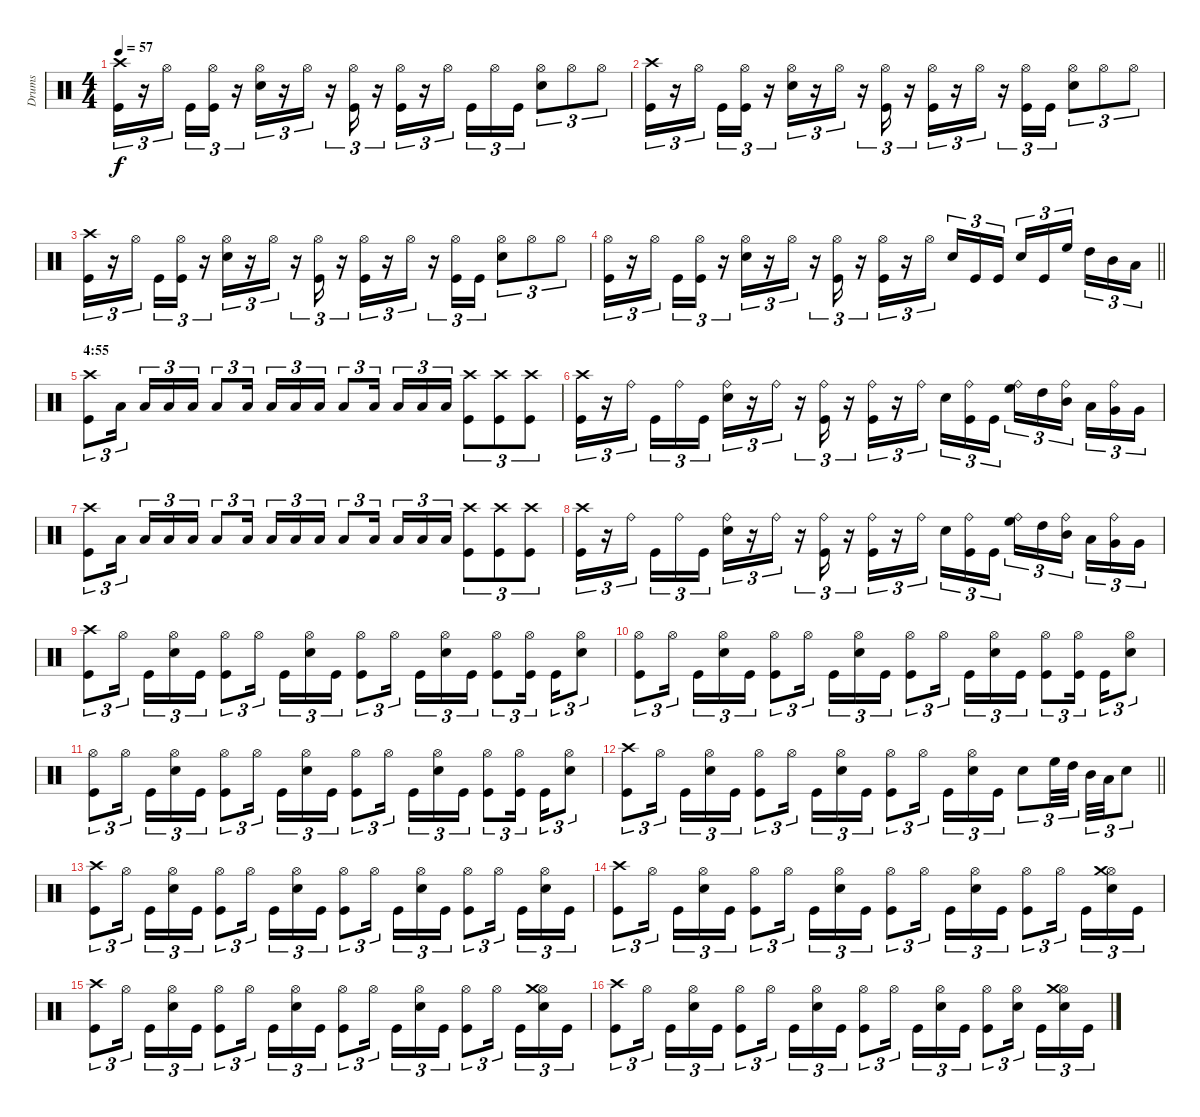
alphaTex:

\track ("Drums" "Drums") {instrument percussion}
\staff {score}
\articulation defaults
\ts (4 4)
\tempo 57
\clef neutral
\ks c
("Crash high (hit)" "Kick (hit)").16{tu (3 2) dy f} r.16{tu (3 2)} "Hi-Hat (open)".16{tu (3 2) beam splitsecondary} "Kick (hit)".16{tu (3 2)} ("Kick (hit)" "Hi-Hat (open)").16{tu (3 2)} r.16{tu (3 2)} ("Snare (hit) 2" "Hi-Hat (open)").16{tu (3 2)} r.16{tu (3 2)} "Hi-Hat (open)".16{tu (3 2)} r.16{tu (3 2)} ("Kick (hit)" "Hi-Hat (open)").16{tu (3 2)} r.16{tu (3 2)} ("Kick (hit)" "Hi-Hat (open)").16{tu (3 2)} r.16{tu (3 2)} "Hi-Hat (open)".16{tu (3 2) beam splitsecondary} "Kick (hit)".16{tu (3 2)} "Hi-Hat (open)".16{tu (3 2)} "Kick (hit)".16{tu (3 2)} ("Snare (hit) 2" "Hi-Hat (open)").8{tu (3 2)} "Hi-Hat (open)".8{tu (3 2)} "Hi-Hat (open)".8{tu (3 2)} |
("Crash high (hit)" "Kick (hit)").16{tu (3 2)} r.16{tu (3 2)} "Hi-Hat (open)".16{tu (3 2) beam splitsecondary} "Kick (hit)".16{tu (3 2)} ("Kick (hit)" "Hi-Hat (open)").16{tu (3 2)} r.16{tu (3 2)} ("Snare (hit) 2" "Hi-Hat (open)").16{tu (3 2)} r.16{tu (3 2)} "Hi-Hat (open)".16{tu (3 2)} r.16{tu (3 2)} ("Kick (hit)" "Hi-Hat (open)").16{tu (3 2)} r.16{tu (3 2)} ("Kick (hit)" "Hi-Hat (open)").16{tu (3 2)} r.16{tu (3 2)} "Hi-Hat (open)".16{tu (3 2)} r.16{tu (3 2)} ("Hi-Hat (open)" "Kick (hit)").16{tu (3 2)} "Kick (hit)".16{tu (3 2)} ("Snare (hit) 2" "Hi-Hat (open)").8{tu (3 2)} "Hi-Hat (open)".8{tu (3 2)} "Hi-Hat (open)".8{tu (3 2)} |
("Crash high (hit)" "Kick (hit)").16{tu (3 2)} r.16{tu (3 2)} "Hi-Hat (open)".16{tu (3 2) beam splitsecondary} "Kick (hit)".16{tu (3 2)} ("Kick (hit)" "Hi-Hat (open)").16{tu (3 2)} r.16{tu (3 2)} ("Snare (hit) 2" "Hi-Hat (open)").16{tu (3 2)} r.16{tu (3 2)} "Hi-Hat (open)".16{tu (3 2)} r.16{tu (3 2)} ("Kick (hit)" "Hi-Hat (open)").16{tu (3 2)} r.16{tu (3 2)} ("Kick (hit)" "Hi-Hat (open)").16{tu (3 2)} r.16{tu (3 2)} "Hi-Hat (open)".16{tu (3 2)} r.16{tu (3 2)} ("Hi-Hat (open)" "Kick (hit)").16{tu (3 2)} "Kick (hit)".16{tu (3 2)} ("Snare (hit) 2" "Hi-Hat (open)").8{tu (3 2)} "Hi-Hat (open)".8{tu (3 2)} "Hi-Hat (open)".8{tu (3 2)} |
\barLineRight lightlight
("Kick (hit)" "Hi-Hat (open)").16{tu (3 2)} r.16{tu (3 2)} "Hi-Hat (open)".16{tu (3 2) beam splitsecondary} "Kick (hit)".16{tu (3 2)} ("Kick (hit)" "Hi-Hat (open)").16{tu (3 2)} r.16{tu (3 2)} ("Snare (hit) 2" "Hi-Hat (open)").16{tu (3 2)} r.16{tu (3 2)} "Hi-Hat (open)".16{tu (3 2)} r.16{tu (3 2)} ("Kick (hit)" "Hi-Hat (open)").16{tu (3 2)} r.16{tu (3 2)} ("Kick (hit)" "Hi-Hat (open)").16{tu (3 2)} r.16{tu (3 2)} "Hi-Hat (open)".16{tu (3 2) beam splitsecondary} "Snare (hit) 2".16{tu (3 2)} "Kick (hit)".16{tu (3 2)} "Kick (hit)".16{tu (3 2)} "Snare (hit) 2".16{tu (3 2)} "Kick (hit)".16{tu (3 2)} "High Floor Tom (hit)".16{tu (3 2) beam splitsecondary} "High Tom (hit)".16{tu (3 2)} "Mid Tom (hit)".16{tu (3 2)} "Low Tom (hit)".16{tu (3 2)} |
\section ("" "4:55")
("Kick (hit)" "Crash high (hit)").8{tu (3 2)} "Low Tom (hit)".16{tu (3 2) beam splitsecondary} "Low Tom (hit)".16{tu (3 2)} "Low Tom (hit)".16{tu (3 2)} "Low Tom (hit)".16{tu (3 2)} "Low Tom (hit)".8{tu (3 2)} "Low Tom (hit)".16{tu (3 2) beam splitsecondary} "Low Tom (hit)".16{tu (3 2)} "Low Tom (hit)".16{tu (3 2)} "Low Tom (hit)".16{tu (3 2)} "Low Tom (hit)".8{tu (3 2)} "Low Tom (hit)".16{tu (3 2) beam splitsecondary} "Low Tom (hit)".16{tu (3 2)} "Low Tom (hit)".16{tu (3 2)} "Low Tom (hit)".16{tu (3 2)} ("Crash high (hit)" "Kick (hit)").8{tu (3 2)} ("Crash high (hit)" "Kick (hit)").8{tu (3 2)} ("Crash high (hit)" "Kick (hit)").8{tu (3 2)} |
("Kick (hit)" "Crash high (hit)").16{tu (3 2)} r.16{tu (3 2)} "Ride (bell)".16{tu (3 2) beam splitsecondary} "Kick (hit)".16{tu (3 2)} "Ride (bell)".16{tu (3 2)} "Kick (hit)".16{tu (3 2)} ("Ride (bell)" "Snare (hit) 2").16{tu (3 2)} r.16{tu (3 2)} "Ride (bell)".16{tu (3 2)} r.16{tu (3 2)} ("Ride (bell)" "Kick (hit)").16{tu (3 2)} r.16{tu (3 2)} ("Ride (bell)" "Kick (hit)").16{tu (3 2)} r.16{tu (3 2)} "Ride (bell)".16{tu (3 2) beam splitsecondary} "Snare (hit) 2".16{tu (3 2)} ("Ride (bell)" "Kick (hit)").16{tu (3 2)} "Kick (hit)".16{tu (3 2)} ("Ride (bell)" "High Floor Tom (hit)").16{tu (3 2)} "High Tom (hit)".16{tu (3 2)} ("Ride (bell)" "Mid Tom (hit)").16{tu (3 2) beam splitsecondary} "Low Tom (hit)".16{tu (3 2)} ("Ride (bell)" "Very Low Tom (hit)").16{tu (3 2)} "Very Low Tom (hit)".16{tu (3 2)} |
("Kick (hit)" "Crash high (hit)").8{tu (3 2)} "Low Tom (hit)".16{tu (3 2) beam splitsecondary} "Low Tom (hit)".16{tu (3 2)} "Low Tom (hit)".16{tu (3 2)} "Low Tom (hit)".16{tu (3 2)} "Low Tom (hit)".8{tu (3 2)} "Low Tom (hit)".16{tu (3 2) beam splitsecondary} "Low Tom (hit)".16{tu (3 2)} "Low Tom (hit)".16{tu (3 2)} "Low Tom (hit)".16{tu (3 2)} "Low Tom (hit)".8{tu (3 2)} "Low Tom (hit)".16{tu (3 2) beam splitsecondary} "Low Tom (hit)".16{tu (3 2)} "Low Tom (hit)".16{tu (3 2)} "Low Tom (hit)".16{tu (3 2)} ("Crash high (hit)" "Kick (hit)").8{tu (3 2)} ("Crash high (hit)" "Kick (hit)").8{tu (3 2)} ("Crash high (hit)" "Kick (hit)").8{tu (3 2)} |
("Kick (hit)" "Crash high (hit)").16{tu (3 2)} r.16{tu (3 2)} "Ride (bell)".16{tu (3 2) beam splitsecondary} "Kick (hit)".16{tu (3 2)} "Ride (bell)".16{tu (3 2)} "Kick (hit)".16{tu (3 2)} ("Ride (bell)" "Snare (hit) 2").16{tu (3 2)} r.16{tu (3 2)} "Ride (bell)".16{tu (3 2)} r.16{tu (3 2)} ("Ride (bell)" "Kick (hit)").16{tu (3 2)} r.16{tu (3 2)} ("Ride (bell)" "Kick (hit)").16{tu (3 2)} r.16{tu (3 2)} "Ride (bell)".16{tu (3 2) beam splitsecondary} "Snare (hit) 2".16{tu (3 2)} ("Ride (bell)" "Kick (hit)").16{tu (3 2)} "Kick (hit)".16{tu (3 2)} ("Ride (bell)" "High Floor Tom (hit)").16{tu (3 2)} "High Tom (hit)".16{tu (3 2)} ("Ride (bell)" "Mid Tom (hit)").16{tu (3 2) beam splitsecondary} "Low Tom (hit)".16{tu (3 2)} ("Ride (bell)" "Very Low Tom (hit)").16{tu (3 2)} "Very Low Tom (hit)".16{tu (3 2)} |
("Kick (hit)" "Crash high (hit)").8{tu (3 2)} "Hi-Hat (open)".16{tu (3 2) beam splitsecondary} "Kick (hit)".16{tu (3 2)} ("Snare (hit) 2" "Hi-Hat (open)").16{tu (3 2)} "Kick (hit)".16{tu (3 2)} ("Kick (hit)" "Hi-Hat (open)").8{tu (3 2)} "Hi-Hat (open)".16{tu (3 2) beam splitsecondary} "Kick (hit)".16{tu (3 2)} ("Snare (hit) 2" "Hi-Hat (open)").16{tu (3 2)} "Kick (hit)".16{tu (3 2)} ("Kick (hit)" "Hi-Hat (open)").8{tu (3 2)} "Hi-Hat (open)".16{tu (3 2) beam splitsecondary} "Kick (hit)".16{tu (3 2)} ("Snare (hit) 2" "Hi-Hat (open)").16{tu (3 2)} "Kick (hit)".16{tu (3 2)} ("Kick (hit)" "Hi-Hat (open)").8{tu (3 2)} ("Hi-Hat (open)" "Kick (hit)").16{tu (3 2) beam splitsecondary} "Kick (hit)".16{tu (3 2)} ("Snare (hit) 2" "Hi-Hat (open)").8{tu (3 2)} |
("Kick (hit)" "Hi-Hat (open)").8{tu (3 2)} "Hi-Hat (open)".16{tu (3 2) beam splitsecondary} "Kick (hit)".16{tu (3 2)} ("Snare (hit) 2" "Hi-Hat (open)").16{tu (3 2)} "Kick (hit)".16{tu (3 2)} ("Kick (hit)" "Hi-Hat (open)").8{tu (3 2)} "Hi-Hat (open)".16{tu (3 2) beam splitsecondary} "Kick (hit)".16{tu (3 2)} ("Snare (hit) 2" "Hi-Hat (open)").16{tu (3 2)} "Kick (hit)".16{tu (3 2)} ("Kick (hit)" "Hi-Hat (open)").8{tu (3 2)} "Hi-Hat (open)".16{tu (3 2) beam splitsecondary} "Kick (hit)".16{tu (3 2)} ("Snare (hit) 2" "Hi-Hat (open)").16{tu (3 2)} "Kick (hit)".16{tu (3 2)} ("Kick (hit)" "Hi-Hat (open)").8{tu (3 2)} ("Hi-Hat (open)" "Kick (hit)").16{tu (3 2) beam splitsecondary} "Kick (hit)".16{tu (3 2)} ("Snare (hit) 2" "Hi-Hat (open)").8{tu (3 2)} |
("Kick (hit)" "Hi-Hat (open)").8{tu (3 2)} "Hi-Hat (open)".16{tu (3 2) beam splitsecondary} "Kick (hit)".16{tu (3 2)} ("Snare (hit) 2" "Hi-Hat (open)").16{tu (3 2)} "Kick (hit)".16{tu (3 2)} ("Kick (hit)" "Hi-Hat (open)").8{tu (3 2)} "Hi-Hat (open)".16{tu (3 2) beam splitsecondary} "Kick (hit)".16{tu (3 2)} ("Snare (hit) 2" "Hi-Hat (open)").16{tu (3 2)} "Kick (hit)".16{tu (3 2)} ("Kick (hit)" "Hi-Hat (open)").8{tu (3 2)} "Hi-Hat (open)".16{tu (3 2) beam splitsecondary} "Kick (hit)".16{tu (3 2)} ("Snare (hit) 2" "Hi-Hat (open)").16{tu (3 2)} "Kick (hit)".16{tu (3 2)} ("Kick (hit)" "Hi-Hat (open)").8{tu (3 2)} ("Hi-Hat (open)" "Kick (hit)").16{tu (3 2) beam splitsecondary} "Kick (hit)".16{tu (3 2)} ("Snare (hit) 2" "Hi-Hat (open)").8{tu (3 2)} |
\barLineRight lightlight
("Kick (hit)" "Crash high (hit)").8{tu (3 2)} "Hi-Hat (open)".16{tu (3 2) beam splitsecondary} "Kick (hit)".16{tu (3 2)} ("Snare (hit) 2" "Hi-Hat (open)").16{tu (3 2)} "Kick (hit)".16{tu (3 2)} ("Kick (hit)" "Hi-Hat (open)").8{tu (3 2)} "Hi-Hat (open)".16{tu (3 2) beam splitsecondary} "Kick (hit)".16{tu (3 2)} ("Snare (hit) 2" "Hi-Hat (open)").16{tu (3 2)} "Kick (hit)".16{tu (3 2)} ("Kick (hit)" "Hi-Hat (open)").8{tu (3 2)} "Hi-Hat (open)".16{tu (3 2) beam splitsecondary} "Kick (hit)".16{tu (3 2)} ("Snare (hit) 2" "Hi-Hat (open)").16{tu (3 2)} "Kick (hit)".16{tu (3 2)} "Snare (hit) 2".8{tu (3 2)} "High Floor Tom (hit)".32{tu (3 2)} "High Tom (hit)".32{tu (3 2) beam splitsecondary} "Mid Tom (hit)".32{tu (3 2)} "Low Tom (hit)".32{tu (3 2)} "Snare (hit) 2".8{tu (3 2)} |
("Kick (hit)" "Crash high (hit)").8{tu (3 2)} "Hi-Hat (open)".16{tu (3 2) beam splitsecondary} "Kick (hit)".16{tu (3 2)} ("Snare (hit) 2" "Hi-Hat (open)").16{tu (3 2)} "Kick (hit)".16{tu (3 2)} ("Kick (hit)" "Hi-Hat (open)").8{tu (3 2)} "Hi-Hat (open)".16{tu (3 2) beam splitsecondary} "Kick (hit)".16{tu (3 2)} ("Snare (hit) 2" "Hi-Hat (open)").16{tu (3 2)} "Kick (hit)".16{tu (3 2)} ("Kick (hit)" "Hi-Hat (open)").8{tu (3 2)} "Hi-Hat (open)".16{tu (3 2) beam splitsecondary} "Kick (hit)".16{tu (3 2)} ("Snare (hit) 2" "Hi-Hat (open)").16{tu (3 2)} "Kick (hit)".16{tu (3 2)} ("Kick (hit)" "Hi-Hat (open)").8{tu (3 2)} "Hi-Hat (open)".16{tu (3 2) beam splitsecondary} "Kick (hit)".16{tu (3 2)} ("Snare (hit) 2" "Hi-Hat (open)").16{tu (3 2)} "Kick (hit)".16{tu (3 2)} |
("Kick (hit)" "Crash high (hit)").8{tu (3 2)} "Hi-Hat (open)".16{tu (3 2) beam splitsecondary} "Kick (hit)".16{tu (3 2)} ("Snare (hit) 2" "Hi-Hat (open)").16{tu (3 2)} "Kick (hit)".16{tu (3 2)} ("Kick (hit)" "Hi-Hat (open)").8{tu (3 2)} "Hi-Hat (open)".16{tu (3 2) beam splitsecondary} "Kick (hit)".16{tu (3 2)} ("Snare (hit) 2" "Hi-Hat (open)").16{tu (3 2)} "Kick (hit)".16{tu (3 2)} ("Kick (hit)" "Hi-Hat (open)").8{tu (3 2)} "Hi-Hat (open)".16{tu (3 2) beam splitsecondary} "Kick (hit)".16{tu (3 2)} ("Snare (hit) 2" "Hi-Hat (open)").16{tu (3 2)} "Kick (hit)".16{tu (3 2)} ("Kick (hit)" "Hi-Hat (open)").8{tu (3 2)} "Hi-Hat (open)".16{tu (3 2) beam splitsecondary} "Kick (hit)".16{tu (3 2)} ("Snare (hit) 2" "Hi-Hat (open)" "Crash medium (hit)").16{tu (3 2)} "Kick (hit)".16{tu (3 2)} |
("Kick (hit)" "Crash high (hit)").8{tu (3 2)} "Hi-Hat (open)".16{tu (3 2) beam splitsecondary} "Kick (hit)".16{tu (3 2)} ("Snare (hit) 2" "Hi-Hat (open)").16{tu (3 2)} "Kick (hit)".16{tu (3 2)} ("Kick (hit)" "Hi-Hat (open)").8{tu (3 2)} "Hi-Hat (open)".16{tu (3 2) beam splitsecondary} "Kick (hit)".16{tu (3 2)} ("Snare (hit) 2" "Hi-Hat (open)").16{tu (3 2)} "Kick (hit)".16{tu (3 2)} ("Kick (hit)" "Hi-Hat (open)").8{tu (3 2)} "Hi-Hat (open)".16{tu (3 2) beam splitsecondary} "Kick (hit)".16{tu (3 2)} ("Snare (hit) 2" "Hi-Hat (open)").16{tu (3 2)} "Kick (hit)".16{tu (3 2)} ("Kick (hit)" "Hi-Hat (open)").8{tu (3 2)} "Hi-Hat (open)".16{tu (3 2) beam splitsecondary} "Kick (hit)".16{tu (3 2)} ("Snare (hit) 2" "Hi-Hat (open)" "Crash medium (hit)").16{tu (3 2)} "Kick (hit)".16{tu (3 2)} |
("Kick (hit)" "Crash high (hit)").8{tu (3 2)} "Hi-Hat (open)".16{tu (3 2) beam splitsecondary} "Kick (hit)".16{tu (3 2)} ("Snare (hit) 2" "Hi-Hat (open)").16{tu (3 2)} "Kick (hit)".16{tu (3 2)} ("Kick (hit)" "Hi-Hat (open)").8{tu (3 2)} "Hi-Hat (open)".16{tu (3 2) beam splitsecondary} "Kick (hit)".16{tu (3 2)} ("Snare (hit) 2" "Hi-Hat (open)").16{tu (3 2)} "Kick (hit)".16{tu (3 2)} ("Kick (hit)" "Hi-Hat (open)").8{tu (3 2)} "Hi-Hat (open)".16{tu (3 2) beam splitsecondary} "Kick (hit)".16{tu (3 2)} ("Snare (hit) 2" "Hi-Hat (open)").16{tu (3 2)} "Kick (hit)".16{tu (3 2)} ("Kick (hit)" "Hi-Hat (open)").8{tu (3 2)} ("Hi-Hat (open)" "Snare (hit) 2").16{tu (3 2) beam splitsecondary} "Kick (hit)".16{tu (3 2)} ("Snare (hit) 2" "Hi-Hat (open)" "Crash medium (hit)").16{tu (3 2)} "Kick (hit)".16{tu (3 2)}
